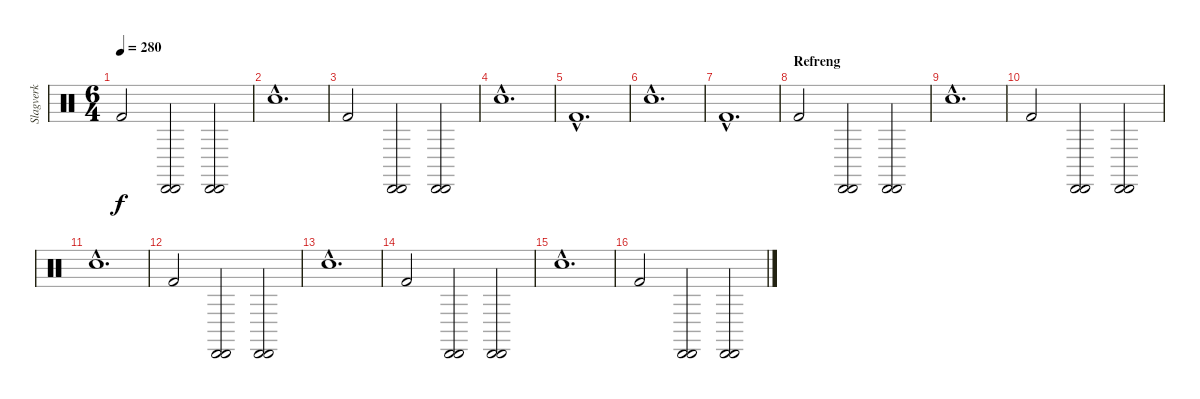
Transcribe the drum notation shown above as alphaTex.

\track ("Slagverk" "Slagverk") {instrument percussion}
\staff {score}
\articulation defaults
\ts (6 4)
\tempo 280
\clef neutral
\ks c "Kick (hit) 2".2{dy f}
("Cabasa (hit)" "Cabasa (hit)").2 ("Cabasa (hit)" "Cabasa (hit)").2 |
"Snare (hit) 2"{hac}.1{d} |
"Kick (hit) 2".2 ("Cabasa (hit)" "Cabasa (hit)").2 ("Cabasa (hit)" "Cabasa (hit)").2 |
"Snare (hit) 2"{hac}.1{d} |
"Kick (hit) 2"{hac}.1{d} |
"Snare (hit) 2"{hac}.1{d} |
"Kick (hit) 2"{hac}.1{d} |
\section ("" "Refreng")
"Kick (hit) 2".2 ("Cabasa (hit)" "Cabasa (hit)").2 ("Cabasa (hit)" "Cabasa (hit)").2 |
"Snare (hit) 2"{hac}.1{d} |
"Kick (hit) 2".2 ("Cabasa (hit)" "Cabasa (hit)").2 ("Cabasa (hit)" "Cabasa (hit)").2 |
"Snare (hit) 2"{hac}.1{d} |
"Kick (hit) 2".2 ("Cabasa (hit)" "Cabasa (hit)").2 ("Cabasa (hit)" "Cabasa (hit)").2 |
"Snare (hit) 2"{hac}.1{d} |
"Kick (hit) 2".2 ("Cabasa (hit)" "Cabasa (hit)").2 ("Cabasa (hit)" "Cabasa (hit)").2 |
"Snare (hit) 2"{hac}.1{d} |
"Kick (hit) 2".2 ("Cabasa (hit)" "Cabasa (hit)").2 ("Cabasa (hit)" "Cabasa (hit)").2
